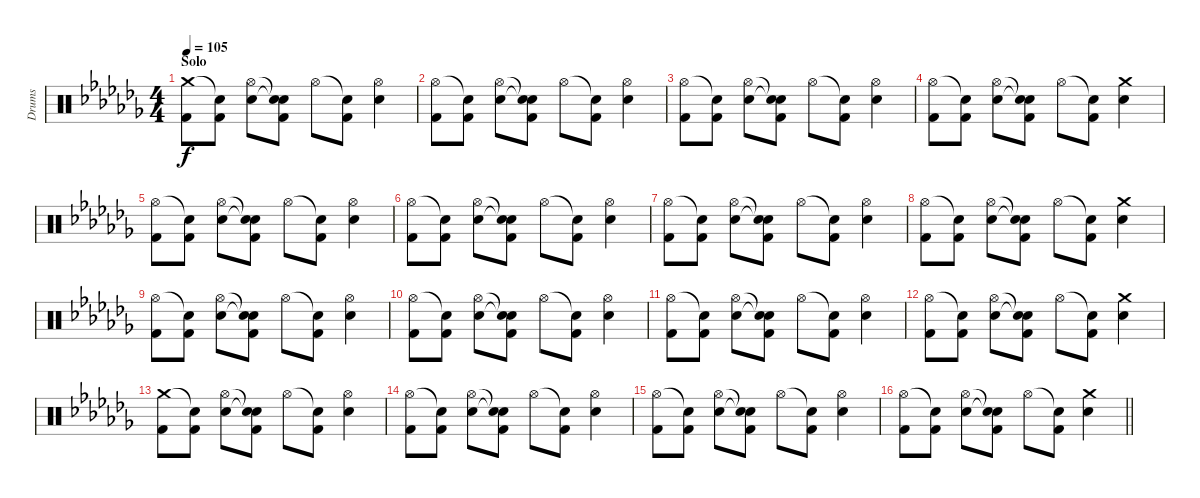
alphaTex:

\track ("Drums" "Drums") {instrument percussion}
\staff {score}
\articulation defaults
\ts (4 4)
\section ("" "Solo")
\tempo 105
\clef neutral
\ks abminor
("Crash medium (hit)" "Kick (hit) 2").8{dy f} ("Snare (hit)"{t} "Kick (hit) 2").8 ("Hi-Hat (open)" "Electric Snare (hit)").8 ("Snare (hit)"{t} "Snare (hit)"{t} "Kick (hit) 2").8 "Hi-Hat (open)".8 ("Snare (hit)"{t} "Kick (hit) 2").8 ("Hi-Hat (open)" "Electric Snare (hit)").4 |
("Hi-Hat (open)" "Kick (hit) 2").8 ("Snare (hit)"{t} "Kick (hit) 2").8 ("Hi-Hat (open)" "Electric Snare (hit)").8 ("Snare (hit)"{t} "Snare (hit)"{t} "Kick (hit) 2").8 "Hi-Hat (open)".8 ("Snare (hit)"{t} "Kick (hit) 2").8 ("Hi-Hat (open)" "Electric Snare (hit)").4 |
("Hi-Hat (open)" "Kick (hit) 2").8 ("Snare (hit)"{t} "Kick (hit) 2").8 ("Hi-Hat (open)" "Electric Snare (hit)").8 ("Snare (hit)"{t} "Snare (hit)"{t} "Kick (hit) 2").8 "Hi-Hat (open)".8 ("Snare (hit)"{t} "Kick (hit) 2").8 ("Hi-Hat (open)" "Electric Snare (hit)").4 |
("Hi-Hat (open)" "Kick (hit) 2").8 ("Snare (hit)"{t} "Kick (hit) 2").8 ("Hi-Hat (open)" "Electric Snare (hit)").8 ("Snare (hit)"{t} "Snare (hit)"{t} "Kick (hit) 2").8 "Hi-Hat (open)".8 ("Snare (hit)"{t} "Kick (hit) 2").8 ("Crash medium (hit)" "Electric Snare (hit)").4 |
("Hi-Hat (open)" "Kick (hit) 2").8 ("Snare (hit)"{t} "Kick (hit) 2").8 ("Hi-Hat (open)" "Electric Snare (hit)").8 ("Snare (hit)"{t} "Snare (hit)"{t} "Kick (hit) 2").8 "Hi-Hat (open)".8 ("Snare (hit)"{t} "Kick (hit) 2").8 ("Hi-Hat (open)" "Electric Snare (hit)").4 |
("Hi-Hat (open)" "Kick (hit) 2").8 ("Snare (hit)"{t} "Kick (hit) 2").8 ("Hi-Hat (open)" "Electric Snare (hit)").8 ("Snare (hit)"{t} "Snare (hit)"{t} "Kick (hit) 2").8 "Hi-Hat (open)".8 ("Snare (hit)"{t} "Kick (hit) 2").8 ("Hi-Hat (open)" "Electric Snare (hit)").4 |
("Hi-Hat (open)" "Kick (hit) 2").8 ("Snare (hit)"{t} "Kick (hit) 2").8 ("Hi-Hat (open)" "Electric Snare (hit)").8 ("Snare (hit)"{t} "Snare (hit)"{t} "Kick (hit) 2").8 "Hi-Hat (open)".8 ("Snare (hit)"{t} "Kick (hit) 2").8 ("Hi-Hat (open)" "Electric Snare (hit)").4 |
("Hi-Hat (open)" "Kick (hit) 2").8 ("Snare (hit)"{t} "Kick (hit) 2").8 ("Hi-Hat (open)" "Electric Snare (hit)").8 ("Snare (hit)"{t} "Snare (hit)"{t} "Kick (hit) 2").8 "Hi-Hat (open)".8 ("Snare (hit)"{t} "Kick (hit) 2").8 ("Crash medium (hit)" "Electric Snare (hit)").4 |
("Hi-Hat (open)" "Kick (hit) 2").8 ("Snare (hit)"{t} "Kick (hit) 2").8 ("Hi-Hat (open)" "Electric Snare (hit)").8 ("Snare (hit)"{t} "Snare (hit)"{t} "Kick (hit) 2").8 "Hi-Hat (open)".8 ("Snare (hit)"{t} "Kick (hit) 2").8 ("Hi-Hat (open)" "Electric Snare (hit)").4 |
("Hi-Hat (open)" "Kick (hit) 2").8 ("Snare (hit)"{t} "Kick (hit) 2").8 ("Hi-Hat (open)" "Electric Snare (hit)").8 ("Snare (hit)"{t} "Snare (hit)"{t} "Kick (hit) 2").8 "Hi-Hat (open)".8 ("Snare (hit)"{t} "Kick (hit) 2").8 ("Hi-Hat (open)" "Electric Snare (hit)").4 |
("Hi-Hat (open)" "Kick (hit) 2").8 ("Snare (hit)"{t} "Kick (hit) 2").8 ("Hi-Hat (open)" "Electric Snare (hit)").8 ("Snare (hit)"{t} "Snare (hit)"{t} "Kick (hit) 2").8 "Hi-Hat (open)".8 ("Snare (hit)"{t} "Kick (hit) 2").8 ("Hi-Hat (open)" "Electric Snare (hit)").4 |
("Hi-Hat (open)" "Kick (hit) 2").8 ("Snare (hit)"{t} "Kick (hit) 2").8 ("Hi-Hat (open)" "Electric Snare (hit)").8 ("Snare (hit)"{t} "Snare (hit)"{t} "Kick (hit) 2").8 "Hi-Hat (open)".8 ("Snare (hit)"{t} "Kick (hit) 2").8 ("Crash medium (hit)" "Electric Snare (hit)").4 |
("Crash medium (hit)" "Kick (hit) 2").8 ("Snare (hit)"{t} "Kick (hit) 2").8 ("Hi-Hat (open)" "Electric Snare (hit)").8 ("Snare (hit)"{t} "Snare (hit)"{t} "Kick (hit) 2").8 "Hi-Hat (open)".8 ("Snare (hit)"{t} "Kick (hit) 2").8 ("Hi-Hat (open)" "Electric Snare (hit)").4 |
("Hi-Hat (open)" "Kick (hit) 2").8 ("Snare (hit)"{t} "Kick (hit) 2").8 ("Hi-Hat (open)" "Electric Snare (hit)").8 ("Snare (hit)"{t} "Snare (hit)"{t} "Kick (hit) 2").8 "Hi-Hat (open)".8 ("Snare (hit)"{t} "Kick (hit) 2").8 ("Hi-Hat (open)" "Electric Snare (hit)").4 |
("Hi-Hat (open)" "Kick (hit) 2").8 ("Snare (hit)"{t} "Kick (hit) 2").8 ("Hi-Hat (open)" "Electric Snare (hit)").8 ("Snare (hit)"{t} "Snare (hit)"{t} "Kick (hit) 2").8 "Hi-Hat (open)".8 ("Snare (hit)"{t} "Kick (hit) 2").8 ("Hi-Hat (open)" "Electric Snare (hit)").4 |
\barLineRight lightlight
("Hi-Hat (open)" "Kick (hit) 2").8 ("Snare (hit)"{t} "Kick (hit) 2").8 ("Hi-Hat (open)" "Electric Snare (hit)").8 ("Snare (hit)"{t} "Snare (hit)"{t} "Kick (hit) 2").8 "Hi-Hat (open)".8 ("Snare (hit)"{t} "Kick (hit) 2").8 ("Crash medium (hit)" "Electric Snare (hit)").4
